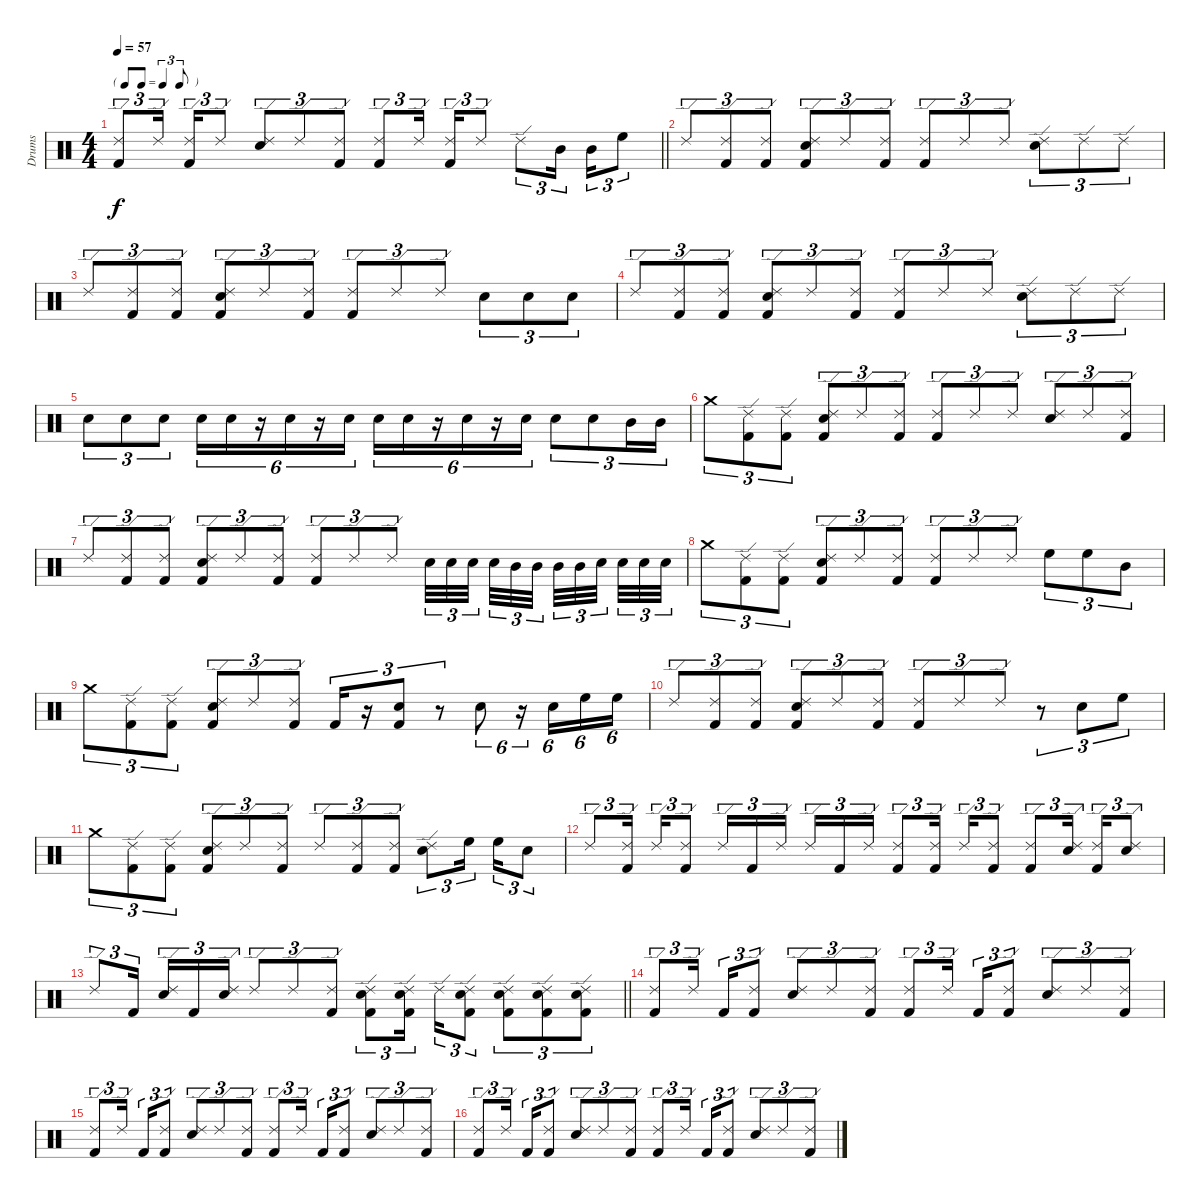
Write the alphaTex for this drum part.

\track ("Drums" "Drums") {instrument percussion}
\staff {score}
\articulation defaults
\ts (4 4)
\tf triplet8th
\tempo 57
\clef neutral
\barLineRight lightlight
\ks c
("Ride (edge) 2" "Kick (hit) 2").8{tu (3 2) dy f} "Ride (edge) 2".16{tu (3 2)} ("Ride (edge) 2" "Kick (hit) 2").16{tu (3 2)} "Ride (edge) 2".8{tu (3 2)} ("Ride (edge) 2" "Snare (hit) 2").8{tu (3 2)} "Ride (edge) 2".8{tu (3 2)} ("Ride (edge) 2" "Kick (hit) 2").8{tu (3 2)} ("Ride (edge) 2" "Kick (hit) 2").8{tu (3 2)} "Ride (edge) 2".16{tu (3 2)} ("Ride (edge) 2" "Kick (hit) 2").16{tu (3 2)} "Ride (edge) 2".8{tu (3 2)} "Ride (edge) 2".8{tu (3 2)} "Mid Tom (hit)".16{tu (3 2)} "Mid Tom (hit)".16{tu (3 2)} "High Floor Tom (hit)".8{tu (3 2)} |
"Ride (edge) 2".8{tu (3 2)} ("Ride (edge) 2" "Kick (hit) 2").8{tu (3 2)} ("Ride (edge) 2" "Kick (hit) 2").8{tu (3 2)} ("Ride (edge) 2" "Snare (hit) 2" "Kick (hit) 2").8{tu (3 2)} "Ride (edge) 2".8{tu (3 2)} ("Ride (edge) 2" "Kick (hit) 2").8{tu (3 2)} ("Ride (edge) 2" "Kick (hit) 2").8{tu (3 2)} "Ride (edge) 2".8{tu (3 2)} "Ride (edge) 2".8{tu (3 2)} ("Ride (edge) 2" "Snare (hit) 2").8{tu (3 2)} "Ride (edge) 2".8{tu (3 2)} "Ride (edge) 2".8{tu (3 2)} |
"Ride (edge) 2".8{tu (3 2)} ("Ride (edge) 2" "Kick (hit) 2").8{tu (3 2)} ("Ride (edge) 2" "Kick (hit) 2").8{tu (3 2)} ("Ride (edge) 2" "Snare (hit) 2" "Kick (hit) 2").8{tu (3 2)} "Ride (edge) 2".8{tu (3 2)} ("Ride (edge) 2" "Kick (hit) 2").8{tu (3 2)} ("Ride (edge) 2" "Kick (hit) 2").8{tu (3 2)} "Ride (edge) 2".8{tu (3 2)} "Ride (edge) 2".8{tu (3 2)} "Snare (hit) 2".8{tu (3 2)} "Snare (hit) 2".8{tu (3 2)} "Snare (hit) 2".8{tu (3 2)} |
"Ride (edge) 2".8{tu (3 2)} ("Ride (edge) 2" "Kick (hit) 2").8{tu (3 2)} ("Ride (edge) 2" "Kick (hit) 2").8{tu (3 2)} ("Ride (edge) 2" "Snare (hit) 2" "Kick (hit) 2").8{tu (3 2)} "Ride (edge) 2".8{tu (3 2)} ("Ride (edge) 2" "Kick (hit) 2").8{tu (3 2)} ("Ride (edge) 2" "Kick (hit) 2").8{tu (3 2)} "Ride (edge) 2".8{tu (3 2)} "Ride (edge) 2".8{tu (3 2)} ("Ride (edge) 2" "Snare (hit) 2").8{tu (3 2)} "Ride (edge) 2".8{tu (3 2)} "Ride (edge) 2".8{tu (3 2)} |
"Snare (hit) 2".8{tu (3 2)} "Snare (hit) 2".8{tu (3 2)} "Snare (hit) 2".8{tu (3 2)} "Snare (hit) 2".16{tu (6 4)} "Snare (hit) 2".16{tu (6 4)} r.16{tu (6 4)} "Snare (hit) 2".16{tu (6 4)} r.16{tu (6 4)} "Snare (hit) 2".16{tu (6 4)} "Snare (hit) 2".16{tu (6 4)} "Snare (hit) 2".16{tu (6 4)} r.16{tu (6 4)} "Snare (hit) 2".16{tu (6 4)} r.16{tu (6 4)} "Snare (hit) 2".16{tu (6 4)} "Snare (hit) 2".8{tu (3 2)} "Snare (hit) 2".8{tu (3 2)} "Mid Tom (hit)".16{tu (3 2)} "Mid Tom (hit)".16{tu (3 2)} |
"Crash medium (hit)".8{tu (3 2)} ("Ride (edge) 2" "Kick (hit) 2").8{tu (3 2)} ("Ride (edge) 2" "Kick (hit) 2").8{tu (3 2)} ("Ride (edge) 2" "Snare (hit) 2" "Kick (hit) 2").8{tu (3 2)} "Ride (edge) 2".8{tu (3 2)} ("Ride (edge) 2" "Kick (hit) 2").8{tu (3 2)} ("Ride (edge) 2" "Kick (hit) 2").8{tu (3 2)} "Ride (edge) 2".8{tu (3 2)} "Ride (edge) 2".8{tu (3 2)} ("Ride (edge) 2" "Snare (hit) 2").8{tu (3 2)} "Ride (edge) 2".8{tu (3 2)} ("Ride (edge) 2" "Kick (hit) 2").8{tu (3 2)} |
"Ride (edge) 2".8{tu (3 2)} ("Ride (edge) 2" "Kick (hit) 2").8{tu (3 2)} ("Ride (edge) 2" "Kick (hit) 2").8{tu (3 2)} ("Ride (edge) 2" "Snare (hit) 2" "Kick (hit) 2").8{tu (3 2)} "Ride (edge) 2".8{tu (3 2)} ("Ride (edge) 2" "Kick (hit) 2").8{tu (3 2)} ("Ride (edge) 2" "Kick (hit) 2").8{tu (3 2)} "Ride (edge) 2".8{tu (3 2)} "Ride (edge) 2".8{tu (3 2)} "Snare (hit) 2".32{tu (3 2)} "Snare (hit) 2".32{tu (3 2)} "Snare (hit) 2".32{tu (3 2)} "Snare (hit) 2".32{tu (3 2)} "Mid Tom (hit)".32{tu (3 2)} "Mid Tom (hit)".32{tu (3 2)} "Mid Tom (hit)".32{tu (3 2)} "Mid Tom (hit)".32{tu (3 2)} "Snare (hit) 2".32{tu (3 2)} "Snare (hit) 2".32{tu (3 2)} "Snare (hit) 2".32{tu (3 2)} "Snare (hit) 2".32{tu (3 2)} |
"Crash medium (hit)".8{tu (3 2)} ("Ride (edge) 2" "Kick (hit) 2").8{tu (3 2)} ("Ride (edge) 2" "Kick (hit) 2").8{tu (3 2)} ("Ride (edge) 2" "Snare (hit) 2" "Kick (hit) 2").8{tu (3 2)} "Ride (edge) 2".8{tu (3 2)} ("Ride (edge) 2" "Kick (hit) 2").8{tu (3 2)} ("Ride (edge) 2" "Kick (hit) 2").8{tu (3 2)} "Ride (edge) 2".8{tu (3 2)} "Ride (edge) 2".8{tu (3 2)} "High Floor Tom (hit)".8{tu (3 2)} "High Floor Tom (hit)".8{tu (3 2)} "Mid Tom (hit)".8{tu (3 2)} |
"Crash medium (hit)".8{tu (3 2)} ("Ride (edge) 2" "Kick (hit) 2").8{tu (3 2)} ("Ride (edge) 2" "Kick (hit) 2").8{tu (3 2)} ("Ride (edge) 2" "Snare (hit) 2" "Kick (hit) 2").8{tu (3 2)} "Ride (edge) 2".8{tu (3 2)} ("Ride (edge) 2" "Kick (hit) 2").8{tu (3 2)} "Kick (hit) 2".16{tu (3 2)} r.16{tu (3 2)} ("Snare (hit) 2" "Kick (hit) 2").8{tu (3 2)} r.8{tu (3 2)} "Snare (hit) 2".8{tu (6 4)} r.16{tu (6 4)} "Snare (hit) 2".16{tu (6 4)} "High Floor Tom (hit)".16{tu (6 4)} "High Floor Tom (hit)".16{tu (6 4)} |
"Ride (edge) 2".8{tu (3 2)} ("Ride (edge) 2" "Kick (hit) 2").8{tu (3 2)} ("Ride (edge) 2" "Kick (hit) 2").8{tu (3 2)} ("Ride (edge) 2" "Snare (hit) 2" "Kick (hit) 2").8{tu (3 2)} "Ride (edge) 2".8{tu (3 2)} ("Ride (edge) 2" "Kick (hit) 2").8{tu (3 2)} ("Ride (edge) 2" "Kick (hit) 2").8{tu (3 2)} "Ride (edge) 2".8{tu (3 2)} "Ride (edge) 2".8{tu (3 2)} r.8{tu (3 2)} "Snare (hit) 2".8{tu (3 2)} "High Floor Tom (hit)".8{tu (3 2)} |
"Crash medium (hit)".8{tu (3 2)} ("Ride (edge) 2" "Kick (hit) 2").8{tu (3 2)} ("Ride (edge) 2" "Kick (hit) 2").8{tu (3 2)} ("Ride (edge) 2" "Snare (hit) 2" "Kick (hit) 2").8{tu (3 2)} "Ride (edge) 2".8{tu (3 2)} ("Ride (edge) 2" "Kick (hit) 2").8{tu (3 2)} "Ride (edge) 2".8{tu (3 2)} ("Ride (edge) 2" "Kick (hit) 2").8{tu (3 2)} ("Ride (edge) 2" "Kick (hit) 2").8{tu (3 2)} ("Ride (edge) 2" "Snare (hit) 2").8{tu (3 2)} "High Floor Tom (hit)".16{tu (3 2)} "High Floor Tom (hit)".16{tu (3 2)} "Snare (hit) 2".8{tu (3 2)} |
"Ride (edge) 2".8{tu (3 2)} ("Ride (edge) 2" "Kick (hit) 2").16{tu (3 2)} "Ride (edge) 2".16{tu (3 2)} ("Ride (edge) 2" "Kick (hit) 2").8{tu (3 2)} "Ride (edge) 2".16{tu (3 2)} "Kick (hit) 2".16{tu (3 2)} "Ride (edge) 2".16{tu (3 2)} "Ride (edge) 2".16{tu (3 2)} "Kick (hit) 2".16{tu (3 2)} "Ride (edge) 2".16{tu (3 2)} ("Ride (edge) 2" "Kick (hit) 2").8{tu (3 2)} ("Ride (edge) 2" "Kick (hit) 2").16{tu (3 2)} "Ride (edge) 2".16{tu (3 2)} ("Ride (edge) 2" "Kick (hit) 2").8{tu (3 2)} ("Ride (edge) 2" "Kick (hit) 2").8{tu (3 2)} ("Ride (edge) 2" "Snare (hit) 2").16{tu (3 2)} ("Ride (edge) 2" "Kick (hit) 2").16{tu (3 2)} ("Ride (edge) 2" "Snare (hit) 2").8{tu (3 2)} |
\barLineRight lightlight "Ride (edge) 2".8{tu (3 2)} "Kick (hit) 2".16{tu (3 2)}
("Ride (edge) 2" "Snare (hit) 2").16{tu (3 2)} "Kick (hit) 2".16{tu (3 2)} ("Ride (edge) 2" "Snare (hit) 2").16{tu (3 2)} "Ride (edge) 2".8{tu (3 2)} "Ride (edge) 2".8{tu (3 2)} ("Ride (edge) 2" "Kick (hit) 2").8{tu (3 2)} ("Ride (edge) 2" "Kick (hit) 2" "Snare (hit) 2").8{tu (3 2)} ("Ride (edge) 2" "Kick (hit) 2" "Snare (hit) 2").16{tu (3 2)} "Ride (edge) 2".16{tu (3 2)} ("Ride (edge) 2" "Kick (hit) 2" "Snare (hit) 2").8{tu (3 2)} ("Ride (edge) 2" "Snare (hit) 2" "Kick (hit) 2").8{tu (3 2)} ("Ride (edge) 2" "Snare (hit) 2" "Kick (hit) 2").8{tu (3 2)} ("Ride (edge) 2" "Snare (hit) 2" "Kick (hit) 2").8{tu (3 2)} |
("Ride (edge) 2" "Kick (hit) 2").8{tu (3 2)} "Ride (edge) 2".16{tu (3 2)} "Kick (hit) 2".16{tu (3 2)} ("Ride (edge) 2" "Kick (hit) 2").8{tu (3 2)} ("Ride (edge) 2" "Snare (hit) 2").8{tu (3 2)} "Ride (edge) 2".8{tu (3 2)} ("Ride (edge) 2" "Kick (hit) 2").8{tu (3 2)} ("Ride (edge) 2" "Kick (hit) 2").8{tu (3 2)} "Ride (edge) 2".16{tu (3 2)} "Kick (hit) 2".16{tu (3 2)} ("Ride (edge) 2" "Kick (hit) 2").8{tu (3 2)} ("Ride (edge) 2" "Snare (hit) 2").8{tu (3 2)} "Ride (edge) 2".8{tu (3 2)} ("Ride (edge) 2" "Kick (hit) 2").8{tu (3 2)} |
("Ride (edge) 2" "Kick (hit) 2").8{tu (3 2)} "Ride (edge) 2".16{tu (3 2)} "Kick (hit) 2".16{tu (3 2)} ("Ride (edge) 2" "Kick (hit) 2").8{tu (3 2)} ("Ride (edge) 2" "Snare (hit) 2").8{tu (3 2)} "Ride (edge) 2".8{tu (3 2)} ("Ride (edge) 2" "Kick (hit) 2").8{tu (3 2)} ("Ride (edge) 2" "Kick (hit) 2").8{tu (3 2)} "Ride (edge) 2".16{tu (3 2)} "Kick (hit) 2".16{tu (3 2)} ("Ride (edge) 2" "Kick (hit) 2").8{tu (3 2)} ("Ride (edge) 2" "Snare (hit) 2").8{tu (3 2)} "Ride (edge) 2".8{tu (3 2)} ("Ride (edge) 2" "Kick (hit) 2").8{tu (3 2)} |
("Ride (edge) 2" "Kick (hit) 2").8{tu (3 2)} "Ride (edge) 2".16{tu (3 2)} "Kick (hit) 2".16{tu (3 2)} ("Ride (edge) 2" "Kick (hit) 2").8{tu (3 2)} ("Ride (edge) 2" "Snare (hit) 2").8{tu (3 2)} "Ride (edge) 2".8{tu (3 2)} ("Ride (edge) 2" "Kick (hit) 2").8{tu (3 2)} ("Ride (edge) 2" "Kick (hit) 2").8{tu (3 2)} "Ride (edge) 2".16{tu (3 2)} "Kick (hit) 2".16{tu (3 2)} ("Ride (edge) 2" "Kick (hit) 2").8{tu (3 2)} ("Ride (edge) 2" "Snare (hit) 2").8{tu (3 2)} "Ride (edge) 2".8{tu (3 2)} ("Ride (edge) 2" "Kick (hit) 2").8{tu (3 2)}
